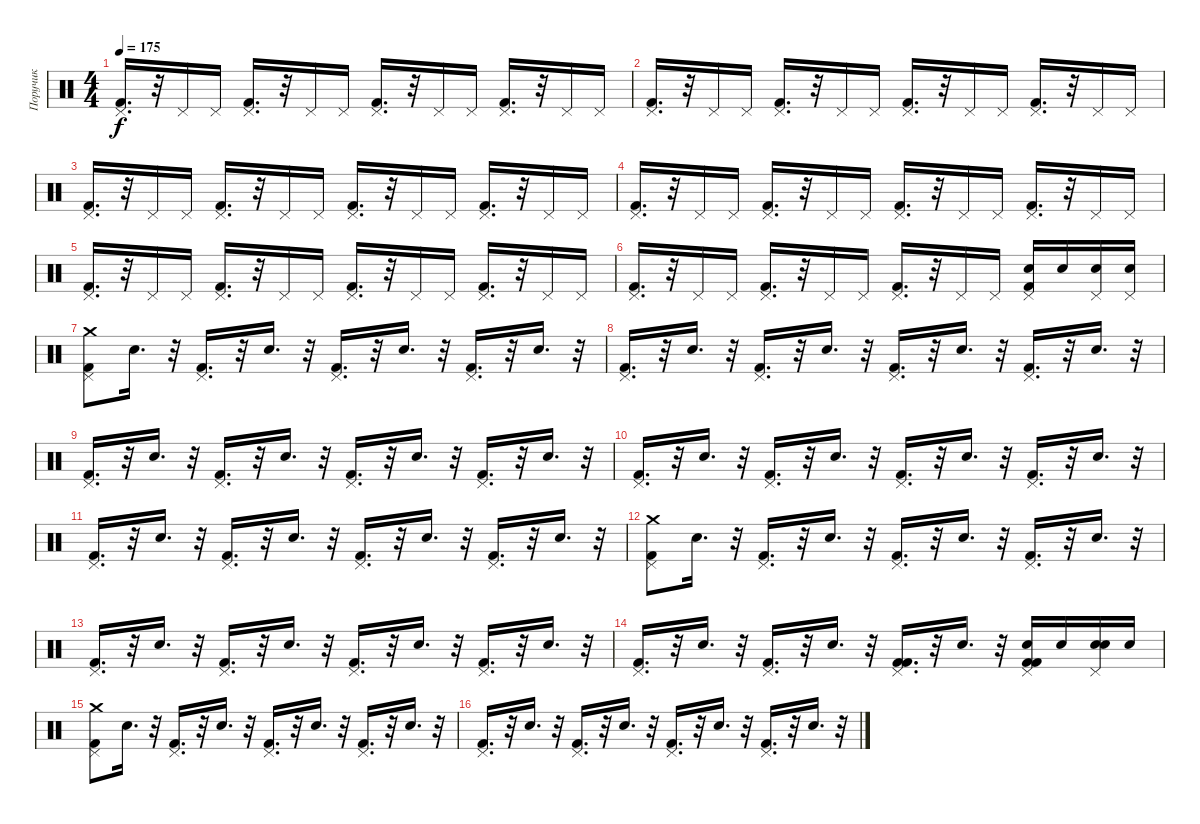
\track ("Поручик" "Поручик") {instrument percussion}
\staff {score}
\articulation defaults
\ts (4 4)
\tempo 175
\clef neutral
\ks c
("Kick (hit) 2" "Pedal Hi-Hat (hit)").16{d dy f} r.32 "Pedal Hi-Hat (hit)".16 "Pedal Hi-Hat (hit)".16 ("Pedal Hi-Hat (hit)" "Kick (hit) 2").16{d} r.32 "Pedal Hi-Hat (hit)".16 "Pedal Hi-Hat (hit)".16 ("Pedal Hi-Hat (hit)" "Kick (hit) 2").16{d} r.32 "Pedal Hi-Hat (hit)".16 "Pedal Hi-Hat (hit)".16 ("Kick (hit) 2" "Pedal Hi-Hat (hit)").16{d} r.32 "Pedal Hi-Hat (hit)".16 "Pedal Hi-Hat (hit)".16 |
("Kick (hit) 2" "Pedal Hi-Hat (hit)").16{d} r.32 "Pedal Hi-Hat (hit)".16 "Pedal Hi-Hat (hit)".16 ("Pedal Hi-Hat (hit)" "Kick (hit) 2").16{d} r.32 "Pedal Hi-Hat (hit)".16 "Pedal Hi-Hat (hit)".16 ("Kick (hit) 2" "Pedal Hi-Hat (hit)").16{d} r.32 "Pedal Hi-Hat (hit)".16 "Pedal Hi-Hat (hit)".16 ("Kick (hit) 2" "Pedal Hi-Hat (hit)").16{d} r.32 "Pedal Hi-Hat (hit)".16 "Pedal Hi-Hat (hit)".16 |
("Pedal Hi-Hat (hit)" "Kick (hit) 2").16{d} r.32 "Pedal Hi-Hat (hit)".16 "Pedal Hi-Hat (hit)".16 ("Kick (hit) 2" "Pedal Hi-Hat (hit)").16{d} r.32 "Pedal Hi-Hat (hit)".16 "Pedal Hi-Hat (hit)".16 ("Pedal Hi-Hat (hit)" "Kick (hit) 2").16{d} r.32 "Pedal Hi-Hat (hit)".16 "Pedal Hi-Hat (hit)".16 ("Pedal Hi-Hat (hit)" "Kick (hit) 2").16{d} r.32 "Pedal Hi-Hat (hit)".16 "Pedal Hi-Hat (hit)".16 |
("Pedal Hi-Hat (hit)" "Kick (hit) 2").16{d} r.32 "Pedal Hi-Hat (hit)".16 "Pedal Hi-Hat (hit)".16 ("Kick (hit) 2" "Pedal Hi-Hat (hit)").16{d} r.32 "Pedal Hi-Hat (hit)".16 "Pedal Hi-Hat (hit)".16 ("Kick (hit) 2" "Pedal Hi-Hat (hit)").16{d} r.32 "Pedal Hi-Hat (hit)".16 "Pedal Hi-Hat (hit)".16 ("Pedal Hi-Hat (hit)" "Kick (hit) 2").16{d} r.32 "Pedal Hi-Hat (hit)".16 "Pedal Hi-Hat (hit)".16 |
("Pedal Hi-Hat (hit)" "Kick (hit) 2").16{d} r.32 "Pedal Hi-Hat (hit)".16 "Pedal Hi-Hat (hit)".16 ("Pedal Hi-Hat (hit)" "Kick (hit) 2").16{d} r.32 "Pedal Hi-Hat (hit)".16 "Pedal Hi-Hat (hit)".16 ("Pedal Hi-Hat (hit)" "Kick (hit) 2").16{d} r.32 "Pedal Hi-Hat (hit)".16 "Pedal Hi-Hat (hit)".16 ("Pedal Hi-Hat (hit)" "Kick (hit) 2").16{d} r.32 "Pedal Hi-Hat (hit)".16 "Pedal Hi-Hat (hit)".16 |
("Kick (hit) 2" "Pedal Hi-Hat (hit)").16{d} r.32 "Pedal Hi-Hat (hit)".16 "Pedal Hi-Hat (hit)".16 ("Pedal Hi-Hat (hit)" "Kick (hit) 2").16{d} r.32 "Pedal Hi-Hat (hit)".16 "Pedal Hi-Hat (hit)".16 ("Kick (hit) 2" "Pedal Hi-Hat (hit)").16{d} r.32 "Pedal Hi-Hat (hit)".16 "Pedal Hi-Hat (hit)".16 ("Pedal Hi-Hat (hit)" "Snare (hit) 2" "Kick (hit) 2").16 "Snare (hit) 2".16 ("Pedal Hi-Hat (hit)" "Snare (hit) 2").16 ("Snare (hit) 2" "Pedal Hi-Hat (hit)").16 |
("Kick (hit) 2" "Crash medium (hit)" "Pedal Hi-Hat (hit)").8 "Snare (hit) 2".16{d} r.32 ("Pedal Hi-Hat (hit)" "Kick (hit) 2").16{d} r.32 "Snare (hit) 2".16{d} r.32 ("Pedal Hi-Hat (hit)" "Kick (hit) 2").16{d} r.32 "Snare (hit) 2".16{d} r.32 ("Kick (hit) 2" "Pedal Hi-Hat (hit)").16{d} r.32 "Snare (hit) 2".16{d} r.32 |
("Kick (hit) 2" "Pedal Hi-Hat (hit)").16{d} r.32 "Snare (hit) 2".16{d} r.32 ("Pedal Hi-Hat (hit)" "Kick (hit) 2").16{d} r.32 "Snare (hit) 2".16{d} r.32 ("Kick (hit) 2" "Pedal Hi-Hat (hit)").16{d} r.32 "Snare (hit) 2".16{d} r.32 ("Kick (hit) 2" "Pedal Hi-Hat (hit)").16{d} r.32 "Snare (hit) 2".16{d} r.32 |
("Pedal Hi-Hat (hit)" "Kick (hit) 2").16{d} r.32 "Snare (hit) 2".16{d} r.32 ("Pedal Hi-Hat (hit)" "Kick (hit) 2").16{d} r.32 "Snare (hit) 2".16{d} r.32 ("Pedal Hi-Hat (hit)" "Kick (hit) 2").16{d} r.32 "Snare (hit) 2".16{d} r.32 ("Pedal Hi-Hat (hit)" "Kick (hit) 2").16{d} r.32 "Snare (hit) 2".16{d} r.32 |
("Pedal Hi-Hat (hit)" "Kick (hit) 2").16{d} r.32 "Snare (hit) 2".16{d} r.32 ("Pedal Hi-Hat (hit)" "Kick (hit) 2").16{d} r.32 "Snare (hit) 2".16{d} r.32 ("Pedal Hi-Hat (hit)" "Kick (hit) 2").16{d} r.32 "Snare (hit) 2".16{d} r.32 ("Pedal Hi-Hat (hit)" "Kick (hit) 2").16{d} r.32 "Snare (hit) 2".16{d} r.32 |
("Pedal Hi-Hat (hit)" "Kick (hit) 2").16{d} r.32 "Snare (hit) 2".16{d} r.32 ("Pedal Hi-Hat (hit)" "Kick (hit) 2").16{d} r.32 "Snare (hit) 2".16{d} r.32 ("Kick (hit) 2" "Pedal Hi-Hat (hit)").16{d} r.32 "Snare (hit) 2".16{d} r.32 ("Kick (hit) 2" "Pedal Hi-Hat (hit)").16{d} r.32 "Snare (hit) 2".16{d} r.32 |
("Kick (hit) 2" "Crash medium (hit)" "Pedal Hi-Hat (hit)").8 "Snare (hit) 2".16{d} r.32 ("Kick (hit) 2" "Pedal Hi-Hat (hit)").16{d} r.32 "Snare (hit) 2".16{d} r.32 ("Kick (hit) 2" "Pedal Hi-Hat (hit)").16{d} r.32 "Snare (hit) 2".16{d} r.32 ("Pedal Hi-Hat (hit)" "Kick (hit) 2").16{d} r.32 "Snare (hit) 2".16{d} r.32 |
("Kick (hit) 2" "Pedal Hi-Hat (hit)").16{d} r.32 "Snare (hit) 2".16{d} r.32 ("Pedal Hi-Hat (hit)" "Kick (hit) 2").16{d} r.32 "Snare (hit) 2".16{d} r.32 ("Kick (hit) 2" "Pedal Hi-Hat (hit)").16{d} r.32 "Snare (hit) 2".16{d} r.32 ("Pedal Hi-Hat (hit)" "Kick (hit) 2").16{d} r.32 "Snare (hit) 2".16{d} r.32 |
("Kick (hit) 2" "Pedal Hi-Hat (hit)").16{d} r.32 "Snare (hit) 2".16{d} r.32 ("Kick (hit) 2" "Pedal Hi-Hat (hit)").16{d} r.32 "Snare (hit) 2".16{d} r.32 ("Pedal Hi-Hat (hit)" "Kick (hit) 2" "Kick (hit) 2").16{d} r.32 "Snare (hit) 2".16{d} r.32 ("Kick (hit) 2" "Kick (hit) 2" "Pedal Hi-Hat (hit)" "Snare (hit) 2").16 "Snare (hit) 2".16 ("Pedal Hi-Hat (hit)" "Snare (hit) 2" "Snare (hit) 2").16 "Snare (hit) 2".16 |
("Kick (hit) 2" "Crash medium (hit)" "Pedal Hi-Hat (hit)").8 "Snare (hit) 2".16{d} r.32 ("Kick (hit) 2" "Pedal Hi-Hat (hit)").16{d} r.32 "Snare (hit) 2".16{d} r.32 ("Kick (hit) 2" "Pedal Hi-Hat (hit)").16{d} r.32 "Snare (hit) 2".16{d} r.32 ("Pedal Hi-Hat (hit)" "Kick (hit) 2").16{d} r.32 "Snare (hit) 2".16{d} r.32 |
("Kick (hit) 2" "Pedal Hi-Hat (hit)").16{d} r.32 "Snare (hit) 2".16{d} r.32 ("Kick (hit) 2" "Pedal Hi-Hat (hit)").16{d} r.32 "Snare (hit) 2".16{d} r.32 ("Pedal Hi-Hat (hit)" "Kick (hit) 2").16{d} r.32 "Snare (hit) 2".16{d} r.32 ("Kick (hit) 2" "Pedal Hi-Hat (hit)").16{d} r.32 "Snare (hit) 2".16{d} r.32
